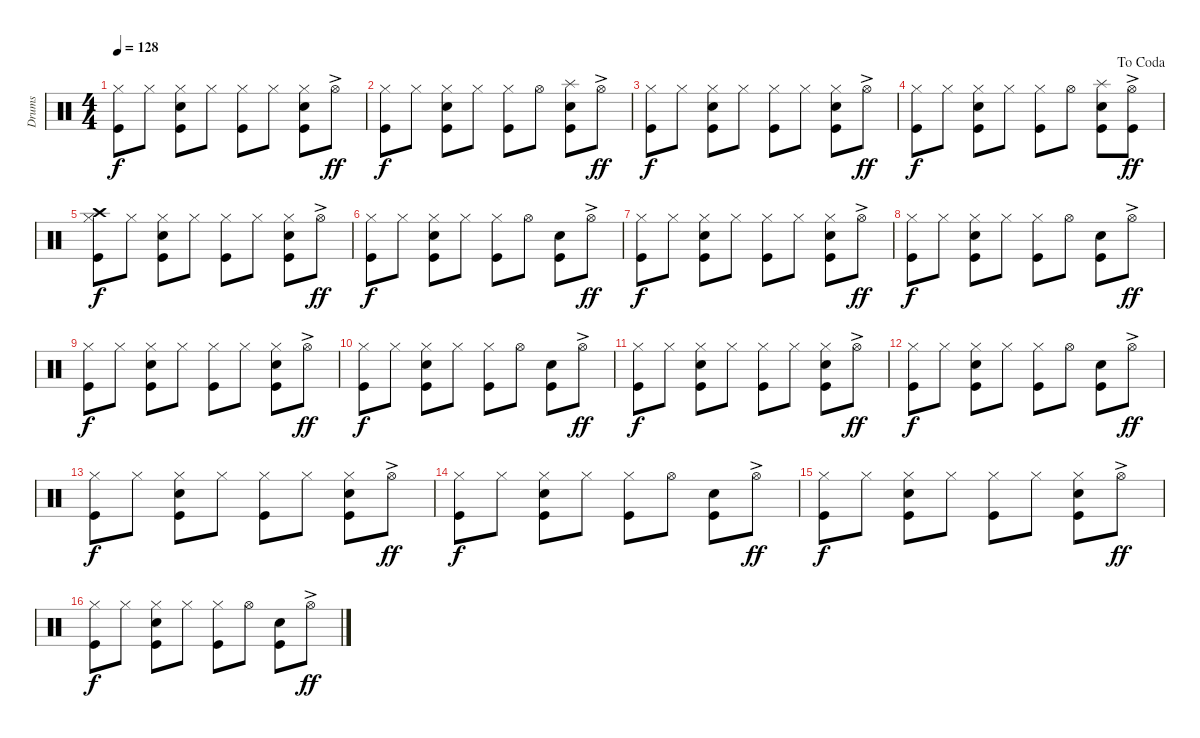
\track ("Drums" "Drums") {instrument percussion}
\staff {score}
\articulation defaults
\ts (4 4)
\tempo 128
\clef neutral
\ks c
("Hi-Hat (closed)" "Kick (hit)").8{dy f} "Hi-Hat (closed)".8 ("Hi-Hat (closed)" "Electric Snare (hit)" "Kick (hit)").8 "Hi-Hat (closed)".8 ("Hi-Hat (closed)" "Kick (hit)").8 "Hi-Hat (closed)".8 ("Hi-Hat (closed)" "Electric Snare (hit)" "Kick (hit)").8 "Hi-Hat (open)"{ac}.8{dy ff} |
("Hi-Hat (closed)" "Kick (hit)").8{dy f} "Hi-Hat (closed)".8 ("Hi-Hat (closed)" "Electric Snare (hit)" "Kick (hit)").8 "Hi-Hat (closed)".8 ("Hi-Hat (closed)" "Kick (hit)").8 "Hi-Hat (open)".8 ("Splash (hit)" "Electric Snare (hit)" "Kick (hit)").8 "Hi-Hat (open)"{ac}.8{dy ff} |
("Hi-Hat (closed)" "Kick (hit)").8{dy f} "Hi-Hat (closed)".8 ("Hi-Hat (closed)" "Electric Snare (hit)" "Kick (hit)").8 "Hi-Hat (closed)".8 ("Hi-Hat (closed)" "Kick (hit)").8 "Hi-Hat (closed)".8 ("Hi-Hat (closed)" "Electric Snare (hit)" "Kick (hit)").8 "Hi-Hat (open)"{ac}.8{dy ff} |
\jump dacoda
("Hi-Hat (closed)" "Kick (hit)").8{dy f} "Hi-Hat (closed)".8 ("Hi-Hat (closed)" "Electric Snare (hit)" "Kick (hit)").8 "Hi-Hat (closed)".8 ("Hi-Hat (closed)" "Kick (hit)").8 "Hi-Hat (open)".8 ("Splash (hit)" "Electric Snare (hit)" "Kick (hit)").8 ("Hi-Hat (open)"{ac} "Kick (hit)"{ac}).8{dy ff} |
("Crash high (hit)" "Hi-Hat (closed)" "Kick (hit)").8{dy f} "Hi-Hat (closed)".8 ("Hi-Hat (closed)" "Electric Snare (hit)" "Kick (hit)").8 "Hi-Hat (closed)".8 ("Hi-Hat (closed)" "Kick (hit)").8 "Hi-Hat (closed)".8 ("Hi-Hat (closed)" "Electric Snare (hit)" "Kick (hit)").8 "Hi-Hat (open)"{ac}.8{dy ff} |
("Hi-Hat (closed)" "Kick (hit)").8{dy f} "Hi-Hat (closed)".8 ("Hi-Hat (closed)" "Electric Snare (hit)" "Kick (hit)").8 "Hi-Hat (closed)".8 ("Hi-Hat (closed)" "Kick (hit)").8 "Hi-Hat (open)".8 ("Electric Snare (hit)" "Kick (hit)").8 "Hi-Hat (open)"{ac}.8{dy ff} |
("Hi-Hat (closed)" "Kick (hit)").8{dy f} "Hi-Hat (closed)".8 ("Hi-Hat (closed)" "Electric Snare (hit)" "Kick (hit)").8 "Hi-Hat (closed)".8 ("Hi-Hat (closed)" "Kick (hit)").8 "Hi-Hat (closed)".8 ("Hi-Hat (closed)" "Electric Snare (hit)" "Kick (hit)").8 "Hi-Hat (open)"{ac}.8{dy ff} |
("Hi-Hat (closed)" "Kick (hit)").8{dy f} "Hi-Hat (closed)".8 ("Hi-Hat (closed)" "Electric Snare (hit)" "Kick (hit)").8 "Hi-Hat (closed)".8 ("Hi-Hat (closed)" "Kick (hit)").8 "Hi-Hat (open)".8 ("Electric Snare (hit)" "Kick (hit)").8 "Hi-Hat (open)"{ac}.8{dy ff} |
("Hi-Hat (closed)" "Kick (hit)").8{dy f} "Hi-Hat (closed)".8 ("Hi-Hat (closed)" "Electric Snare (hit)" "Kick (hit)").8 "Hi-Hat (closed)".8 ("Hi-Hat (closed)" "Kick (hit)").8 "Hi-Hat (closed)".8 ("Hi-Hat (closed)" "Electric Snare (hit)" "Kick (hit)").8 "Hi-Hat (open)"{ac}.8{dy ff} |
("Hi-Hat (closed)" "Kick (hit)").8{dy f} "Hi-Hat (closed)".8 ("Hi-Hat (closed)" "Electric Snare (hit)" "Kick (hit)").8 "Hi-Hat (closed)".8 ("Hi-Hat (closed)" "Kick (hit)").8 "Hi-Hat (open)".8 ("Electric Snare (hit)" "Kick (hit)").8 "Hi-Hat (open)"{ac}.8{dy ff} |
("Hi-Hat (closed)" "Kick (hit)").8{dy f} "Hi-Hat (closed)".8 ("Hi-Hat (closed)" "Electric Snare (hit)" "Kick (hit)").8 "Hi-Hat (closed)".8 ("Hi-Hat (closed)" "Kick (hit)").8 "Hi-Hat (closed)".8 ("Hi-Hat (closed)" "Electric Snare (hit)" "Kick (hit)").8 "Hi-Hat (open)"{ac}.8{dy ff} |
("Hi-Hat (closed)" "Kick (hit)").8{dy f} "Hi-Hat (closed)".8 ("Hi-Hat (closed)" "Electric Snare (hit)" "Kick (hit)").8 "Hi-Hat (closed)".8 ("Hi-Hat (closed)" "Kick (hit)").8 "Hi-Hat (open)".8 ("Electric Snare (hit)" "Kick (hit)").8 "Hi-Hat (open)"{ac}.8{dy ff} |
("Hi-Hat (closed)" "Kick (hit)").8{dy f} "Hi-Hat (closed)".8 ("Hi-Hat (closed)" "Electric Snare (hit)" "Kick (hit)").8 "Hi-Hat (closed)".8 ("Hi-Hat (closed)" "Kick (hit)").8 "Hi-Hat (closed)".8 ("Hi-Hat (closed)" "Electric Snare (hit)" "Kick (hit)").8 "Hi-Hat (open)"{ac}.8{dy ff} |
("Hi-Hat (closed)" "Kick (hit)").8{dy f} "Hi-Hat (closed)".8 ("Hi-Hat (closed)" "Electric Snare (hit)" "Kick (hit)").8 "Hi-Hat (closed)".8 ("Hi-Hat (closed)" "Kick (hit)").8 "Hi-Hat (open)".8 ("Electric Snare (hit)" "Kick (hit)").8 "Hi-Hat (open)"{ac}.8{dy ff} |
("Hi-Hat (closed)" "Kick (hit)").8{dy f} "Hi-Hat (closed)".8 ("Hi-Hat (closed)" "Electric Snare (hit)" "Kick (hit)").8 "Hi-Hat (closed)".8 ("Hi-Hat (closed)" "Kick (hit)").8 "Hi-Hat (closed)".8 ("Hi-Hat (closed)" "Electric Snare (hit)" "Kick (hit)").8 "Hi-Hat (open)"{ac}.8{dy ff} |
("Hi-Hat (closed)" "Kick (hit)").8{dy f} "Hi-Hat (closed)".8 ("Hi-Hat (closed)" "Electric Snare (hit)" "Kick (hit)").8 "Hi-Hat (closed)".8 ("Hi-Hat (closed)" "Kick (hit)").8 "Hi-Hat (open)".8 ("Electric Snare (hit)" "Kick (hit)").8 "Hi-Hat (open)"{ac}.8{dy ff}
